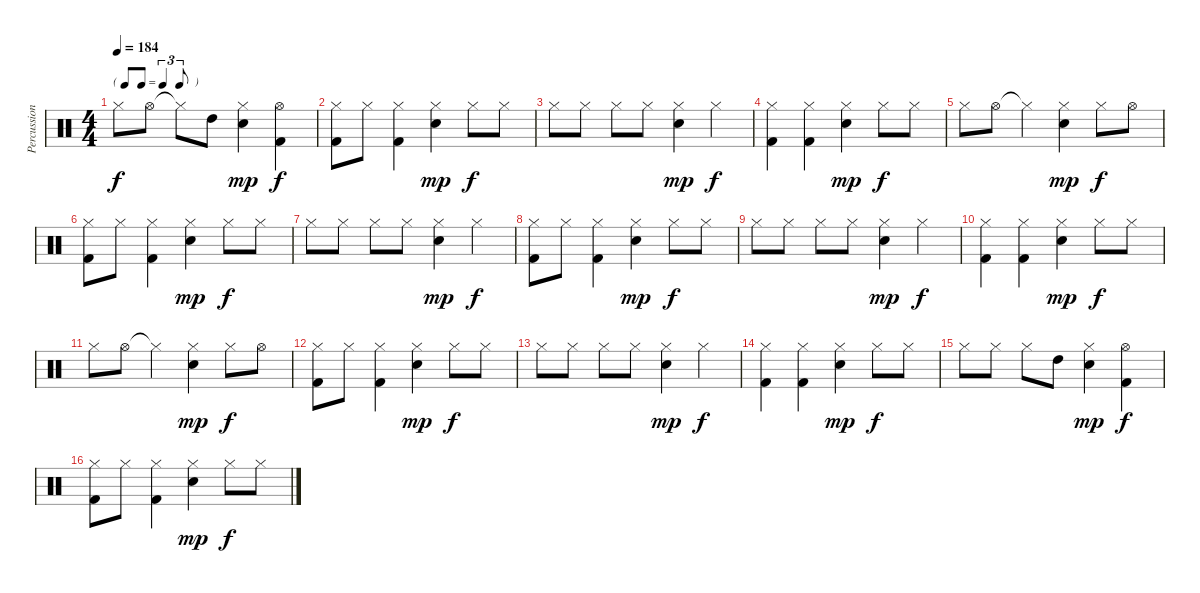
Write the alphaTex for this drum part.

\track ("Percussion" "Percussion") {instrument percussion}
\staff {score}
\articulation defaults
\ts (4 4)
\tf triplet8th
\tempo 184
\clef neutral
\ks c "Hi-Hat (closed)".8{dy f} "Hi-Hat (open)".8 "Hi-Hat (closed)"{t}.8 "High Tom (hit)".8
("Hi-Hat (closed)" "Electric Snare (hit)").4{dy mp} ("Hi-Hat (open)" "Kick (hit) 2").4{dy f} |
("Hi-Hat (closed)" "Kick (hit) 2").8 "Hi-Hat (closed)".8 ("Hi-Hat (closed)" "Kick (hit) 2").4 ("Hi-Hat (closed)" "Electric Snare (hit)").4{dy mp} "Hi-Hat (closed)".8{dy f} "Hi-Hat (closed)".8 |
"Hi-Hat (closed)".8 "Hi-Hat (closed)".8 "Hi-Hat (closed)".8 "Hi-Hat (closed)".8 ("Hi-Hat (closed)" "Electric Snare (hit)").4{dy mp} "Hi-Hat (closed)".4{dy f} |
("Hi-Hat (closed)" "Kick (hit) 2").4 ("Hi-Hat (closed)" "Kick (hit) 2").4 ("Hi-Hat (closed)" "Electric Snare (hit)").4{dy mp} "Hi-Hat (closed)".8{dy f} "Hi-Hat (closed)".8 |
"Hi-Hat (closed)".8 "Hi-Hat (open)".8 "Hi-Hat (closed)"{t}.4 ("Hi-Hat (closed)" "Electric Snare (hit)").4{dy mp} "Hi-Hat (closed)".8{dy f} "Hi-Hat (open)".8 |
("Hi-Hat (closed)" "Kick (hit) 2").8 "Hi-Hat (closed)".8 ("Hi-Hat (closed)" "Kick (hit) 2").4 ("Hi-Hat (closed)" "Electric Snare (hit)").4{dy mp} "Hi-Hat (closed)".8{dy f} "Hi-Hat (closed)".8 |
"Hi-Hat (closed)".8 "Hi-Hat (closed)".8 "Hi-Hat (closed)".8 "Hi-Hat (closed)".8 ("Hi-Hat (closed)" "Electric Snare (hit)").4{dy mp} "Hi-Hat (closed)".4{dy f} |
("Hi-Hat (closed)" "Kick (hit) 2").8 "Hi-Hat (closed)".8 ("Hi-Hat (closed)" "Kick (hit) 2").4 ("Hi-Hat (closed)" "Electric Snare (hit)").4{dy mp} "Hi-Hat (closed)".8{dy f} "Hi-Hat (closed)".8 |
"Hi-Hat (closed)".8 "Hi-Hat (closed)".8 "Hi-Hat (closed)".8 "Hi-Hat (closed)".8 ("Hi-Hat (closed)" "Electric Snare (hit)").4{dy mp} "Hi-Hat (closed)".4{dy f} |
("Hi-Hat (closed)" "Kick (hit) 2").4 ("Hi-Hat (closed)" "Kick (hit) 2").4 ("Hi-Hat (closed)" "Electric Snare (hit)").4{dy mp} "Hi-Hat (closed)".8{dy f} "Hi-Hat (closed)".8 |
"Hi-Hat (closed)".8 "Hi-Hat (open)".8 "Hi-Hat (closed)"{t}.4 ("Hi-Hat (closed)" "Electric Snare (hit)").4{dy mp} "Hi-Hat (closed)".8{dy f} "Hi-Hat (open)".8 |
("Hi-Hat (closed)" "Kick (hit) 2").8 "Hi-Hat (closed)".8 ("Hi-Hat (closed)" "Kick (hit) 2").4 ("Hi-Hat (closed)" "Electric Snare (hit)").4{dy mp} "Hi-Hat (closed)".8{dy f} "Hi-Hat (closed)".8 |
"Hi-Hat (closed)".8 "Hi-Hat (closed)".8 "Hi-Hat (closed)".8 "Hi-Hat (closed)".8 ("Hi-Hat (closed)" "Electric Snare (hit)").4{dy mp} "Hi-Hat (closed)".4{dy f} |
("Hi-Hat (closed)" "Kick (hit) 2").4 ("Hi-Hat (closed)" "Kick (hit) 2").4 ("Hi-Hat (closed)" "Electric Snare (hit)").4{dy mp} "Hi-Hat (closed)".8{dy f} "Hi-Hat (closed)".8 |
"Hi-Hat (closed)".8 "Hi-Hat (closed)".8 "Hi-Hat (closed)".8 "High Tom (hit)".8 ("Hi-Hat (closed)" "Electric Snare (hit)").4{dy mp} ("Hi-Hat (open)" "Kick (hit) 2").4{dy f} |
("Hi-Hat (closed)" "Kick (hit) 2").8 "Hi-Hat (closed)".8 ("Hi-Hat (closed)" "Kick (hit) 2").4 ("Hi-Hat (closed)" "Electric Snare (hit)").4{dy mp} "Hi-Hat (closed)".8{dy f} "Hi-Hat (closed)".8
